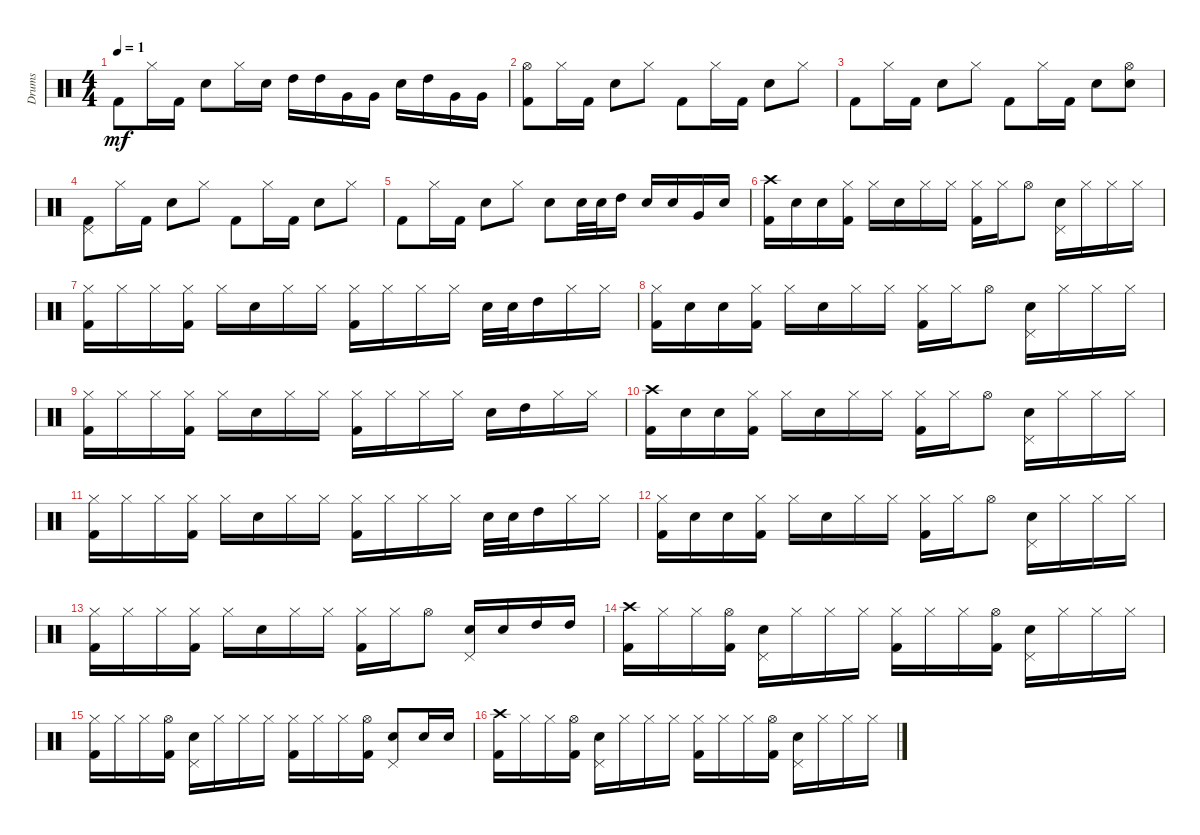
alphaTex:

\track ("Drums" "Drums") {instrument percussion}
\staff {score}
\articulation defaults
\ts (4 4)
\tempo 1
\clef neutral
\ks c "Kick (hit) 2".8{dy mf} "Hi-Hat (closed)".16 "Kick (hit) 2".16 "Snare (hit) 2".8 "Hi-Hat (closed)".16 "Snare (hit) 2".16 "High Tom (hit)".16 "High Tom (hit)".16 "Very Low Tom (hit)".16 "Very Low Tom (hit)".16 "Snare (hit) 2".16 "High Tom (hit)".16 "Very Low Tom (hit)".16 "Very Low Tom (hit)".16
|
("Kick (hit) 2" "Hi-Hat (open)").8 "Hi-Hat (closed)".16 "Kick (hit) 2".16 "Snare (hit) 2".8 "Hi-Hat (closed)".8 "Kick (hit) 2".8 "Hi-Hat (closed)".16 "Kick (hit) 2".16 "Snare (hit) 2".8 "Hi-Hat (closed)".8 |
"Kick (hit) 2".8 "Hi-Hat (closed)".16 "Kick (hit) 2".16 "Snare (hit) 2".8 "Hi-Hat (closed)".8 "Kick (hit) 2".8 "Hi-Hat (closed)".16 "Kick (hit) 2".16 "Snare (hit) 2".8 ("Hi-Hat (open)" "Snare (hit) 2").8 |
("Kick (hit) 2" "Pedal Hi-Hat (hit)").8 "Hi-Hat (closed)".16 "Kick (hit) 2".16 "Snare (hit) 2".8 "Hi-Hat (closed)".8 "Kick (hit) 2".8 "Hi-Hat (closed)".16 "Kick (hit) 2".16 "Snare (hit) 2".8 "Hi-Hat (closed)".8 |
"Kick (hit) 2".8 "Hi-Hat (closed)".16 "Kick (hit) 2".16 "Snare (hit) 2".8 "Hi-Hat (closed)".8 "Snare (hit) 2".8 "Snare (hit) 2".32 "Snare (hit) 2".32 "High Tom (hit)".16 "Snare (hit) 2".16 "Snare (hit) 2".16 "Very Low Tom (hit)".16 "Snare (hit) 2".16 |
("Kick (hit) 2" "Crash high (hit)").16 "Snare (hit) 2".16 "Snare (hit) 2".16 ("Kick (hit) 2" "Hi-Hat (closed)").16 "Hi-Hat (closed)".16 "Snare (hit) 2".16 "Hi-Hat (closed)".16 "Hi-Hat (closed)".16 ("Kick (hit) 2" "Hi-Hat (closed)").16 "Hi-Hat (closed)".16 "Hi-Hat (open)".8 ("Snare (hit) 2" "Pedal Hi-Hat (hit)").16 "Hi-Hat (closed)".16 "Hi-Hat (closed)".16 "Hi-Hat (closed)".16 |
("Kick (hit) 2" "Hi-Hat (closed)").16 "Hi-Hat (closed)".16 "Hi-Hat (closed)".16 ("Kick (hit) 2" "Hi-Hat (closed)").16 "Hi-Hat (closed)".16 "Snare (hit) 2".16 "Hi-Hat (closed)".16 "Hi-Hat (closed)".16 ("Kick (hit) 2" "Hi-Hat (closed)").16 "Hi-Hat (closed)".16 "Hi-Hat (closed)".16 "Hi-Hat (closed)".16 "Snare (hit) 2".32 "Snare (hit) 2".32 "High Tom (hit)".16 "Hi-Hat (closed)".16 "Hi-Hat (closed)".16 |
("Kick (hit) 2" "Hi-Hat (closed)").16 "Snare (hit) 2".16 "Snare (hit) 2".16 ("Kick (hit) 2" "Hi-Hat (closed)").16 "Hi-Hat (closed)".16 "Snare (hit) 2".16 "Hi-Hat (closed)".16 "Hi-Hat (closed)".16 ("Kick (hit) 2" "Hi-Hat (closed)").16 "Hi-Hat (closed)".16 "Hi-Hat (open)".8 ("Snare (hit) 2" "Pedal Hi-Hat (hit)").16 "Hi-Hat (closed)".16 "Hi-Hat (closed)".16 "Hi-Hat (closed)".16 |
("Kick (hit) 2" "Hi-Hat (closed)").16 "Hi-Hat (closed)".16 "Hi-Hat (closed)".16 ("Kick (hit) 2" "Hi-Hat (closed)").16 "Hi-Hat (closed)".16 "Snare (hit) 2".16 "Hi-Hat (closed)".16 "Hi-Hat (closed)".16 ("Kick (hit) 2" "Hi-Hat (closed)").16 "Hi-Hat (closed)".16 "Hi-Hat (closed)".16 "Hi-Hat (closed)".16 "Snare (hit) 2".16 "High Tom (hit)".16 "Hi-Hat (closed)".16 "Hi-Hat (closed)".16 |
("Kick (hit) 2" "Crash high (hit)").16 "Snare (hit) 2".16 "Snare (hit) 2".16 ("Kick (hit) 2" "Hi-Hat (closed)").16 "Hi-Hat (closed)".16 "Snare (hit) 2".16 "Hi-Hat (closed)".16 "Hi-Hat (closed)".16 ("Kick (hit) 2" "Hi-Hat (closed)").16 "Hi-Hat (closed)".16 "Hi-Hat (open)".8 ("Snare (hit) 2" "Pedal Hi-Hat (hit)").16 "Hi-Hat (closed)".16 "Hi-Hat (closed)".16 "Hi-Hat (closed)".16 |
("Kick (hit) 2" "Hi-Hat (closed)").16 "Hi-Hat (closed)".16 "Hi-Hat (closed)".16 ("Kick (hit) 2" "Hi-Hat (closed)").16 "Hi-Hat (closed)".16 "Snare (hit) 2".16 "Hi-Hat (closed)".16 "Hi-Hat (closed)".16 ("Kick (hit) 2" "Hi-Hat (closed)").16 "Hi-Hat (closed)".16 "Hi-Hat (closed)".16 "Hi-Hat (closed)".16 "Snare (hit) 2".32 "Snare (hit) 2".32 "High Tom (hit)".16 "Hi-Hat (closed)".16 "Hi-Hat (closed)".16 |
("Kick (hit) 2" "Hi-Hat (closed)").16 "Snare (hit) 2".16 "Snare (hit) 2".16 ("Kick (hit) 2" "Hi-Hat (closed)").16 "Hi-Hat (closed)".16 "Snare (hit) 2".16 "Hi-Hat (closed)".16 "Hi-Hat (closed)".16 ("Kick (hit) 2" "Hi-Hat (closed)").16 "Hi-Hat (closed)".16 "Hi-Hat (open)".8 ("Snare (hit) 2" "Pedal Hi-Hat (hit)").16 "Hi-Hat (closed)".16 "Hi-Hat (closed)".16 "Hi-Hat (closed)".16 |
("Hi-Hat (closed)" "Kick (hit) 2").16 "Hi-Hat (closed)".16 "Hi-Hat (closed)".16 ("Hi-Hat (closed)" "Kick (hit) 2").16 "Hi-Hat (closed)".16 "Snare (hit) 2".16 "Hi-Hat (closed)".16 "Hi-Hat (closed)".16 ("Hi-Hat (closed)" "Kick (hit) 2").16 "Hi-Hat (closed)".16 "Hi-Hat (open)".8 ("Snare (hit) 2" "Pedal Hi-Hat (hit)").16 "Snare (hit) 2".16 "High Tom (hit)".16 "High Tom (hit)".16 |
("Kick (hit) 2" "Crash high (hit)").16 "Hi-Hat (closed)".16 "Hi-Hat (closed)".16 ("Kick (hit) 2" "Hi-Hat (open)").16 ("Snare (hit) 2" "Pedal Hi-Hat (hit)").16 "Hi-Hat (closed)".16 "Hi-Hat (closed)".16 "Hi-Hat (closed)".16 ("Hi-Hat (closed)" "Kick (hit) 2").16 "Hi-Hat (closed)".16 "Hi-Hat (closed)".16 ("Hi-Hat (open)" "Kick (hit) 2").16 ("Snare (hit) 2" "Pedal Hi-Hat (hit)").16 "Hi-Hat (closed)".16 "Hi-Hat (closed)".16 "Hi-Hat (closed)".16 |
("Kick (hit) 2" "Hi-Hat (closed)").16 "Hi-Hat (closed)".16 "Hi-Hat (closed)".16 ("Kick (hit) 2" "Hi-Hat (open)").16 ("Snare (hit) 2" "Pedal Hi-Hat (hit)").16 "Hi-Hat (closed)".16 "Hi-Hat (closed)".16 "Hi-Hat (closed)".16 ("Hi-Hat (closed)" "Kick (hit) 2").16 "Hi-Hat (closed)".16 "Hi-Hat (closed)".16 ("Hi-Hat (open)" "Kick (hit) 2").16 ("Snare (hit) 2" "Pedal Hi-Hat (hit)").8 "Snare (hit) 2".16 "Snare (hit) 2".16 |
("Kick (hit) 2" "Crash high (hit)").16 "Hi-Hat (closed)".16 "Hi-Hat (closed)".16 ("Kick (hit) 2" "Hi-Hat (open)").16 ("Snare (hit) 2" "Pedal Hi-Hat (hit)").16 "Hi-Hat (closed)".16 "Hi-Hat (closed)".16 "Hi-Hat (closed)".16 ("Hi-Hat (closed)" "Kick (hit) 2").16 "Hi-Hat (closed)".16 "Hi-Hat (closed)".16 ("Hi-Hat (open)" "Kick (hit) 2").16 ("Snare (hit) 2" "Pedal Hi-Hat (hit)").16 "Hi-Hat (closed)".16 "Hi-Hat (closed)".16 "Hi-Hat (closed)".16
